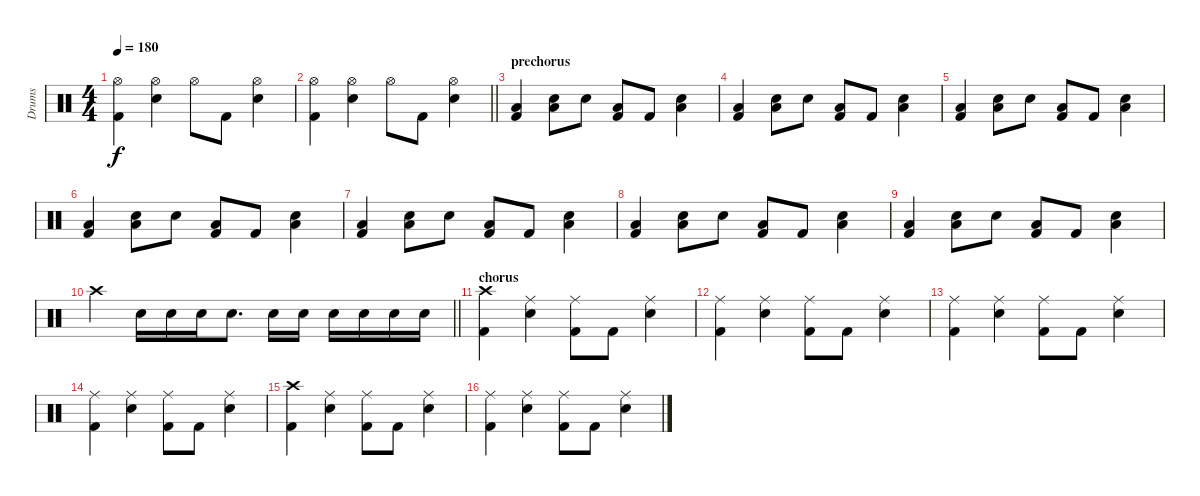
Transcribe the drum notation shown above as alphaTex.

\track ("Drums" "Drums") {instrument percussion}
\staff {score}
\articulation defaults
\ts (4 4)
\tempo 180
\clef neutral
\ks c
("Hi-Hat (open)" "Kick (hit) 2").4{dy f} ("Hi-Hat (open)" "Electric Snare (hit)").4 "Hi-Hat (open)".8 "Kick (hit) 2".8 ("Hi-Hat (open)" "Electric Snare (hit)").4 |
\barLineRight lightlight
("Hi-Hat (open)" "Kick (hit) 2").4 ("Hi-Hat (open)" "Electric Snare (hit)").4 "Hi-Hat (open)".8 "Kick (hit) 2".8 ("Hi-Hat (open)" "Electric Snare (hit)").4 |
\section ("" "prechorus")
("Low Tom (hit)" "Kick (hit) 2").4 ("Low Tom (hit)" "Electric Snare (hit)").8 "Electric Snare (hit)".8 ("Low Tom (hit)" "Kick (hit) 2").8 "Kick (hit) 2".8 ("Low Tom (hit)" "Electric Snare (hit)").4 |
("Low Tom (hit)" "Kick (hit) 2").4 ("Low Tom (hit)" "Electric Snare (hit)").8 "Electric Snare (hit)".8 ("Low Tom (hit)" "Kick (hit) 2").8 "Kick (hit) 2".8 ("Low Tom (hit)" "Electric Snare (hit)").4 |
("Low Tom (hit)" "Kick (hit) 2").4 ("Low Tom (hit)" "Electric Snare (hit)").8 "Electric Snare (hit)".8 ("Low Tom (hit)" "Kick (hit) 2").8 "Kick (hit) 2".8 ("Low Tom (hit)" "Electric Snare (hit)").4 |
("Low Tom (hit)" "Kick (hit) 2").4 ("Low Tom (hit)" "Electric Snare (hit)").8 "Electric Snare (hit)".8 ("Low Tom (hit)" "Kick (hit) 2").8 "Kick (hit) 2".8 ("Low Tom (hit)" "Electric Snare (hit)").4 |
("Low Tom (hit)" "Kick (hit) 2").4 ("Low Tom (hit)" "Electric Snare (hit)").8 "Electric Snare (hit)".8 ("Low Tom (hit)" "Kick (hit) 2").8 "Kick (hit) 2".8 ("Low Tom (hit)" "Electric Snare (hit)").4 |
("Low Tom (hit)" "Kick (hit) 2").4 ("Low Tom (hit)" "Electric Snare (hit)").8 "Electric Snare (hit)".8 ("Low Tom (hit)" "Kick (hit) 2").8 "Kick (hit) 2".8 ("Low Tom (hit)" "Electric Snare (hit)").4 |
("Low Tom (hit)" "Kick (hit) 2").4 ("Low Tom (hit)" "Electric Snare (hit)").8 "Electric Snare (hit)".8 ("Low Tom (hit)" "Kick (hit) 2").8 "Kick (hit) 2".8 ("Low Tom (hit)" "Electric Snare (hit)").4 |
\barLineRight lightlight "Crash high (hit)".4 "Electric Snare (hit)".16 "Electric Snare (hit)".16 "Electric Snare (hit)".16 "Electric Snare (hit)".8{d} "Electric Snare (hit)".16 "Electric Snare (hit)".16 "Electric Snare (hit)".16 "Electric Snare (hit)".16 "Electric Snare (hit)".16 "Electric Snare (hit)".16
|
\section ("" "chorus")
("Crash high (hit)" "Kick (hit) 2").4 ("Ride (middle)" "Electric Snare (hit)").4 ("Ride (middle)" "Kick (hit) 2").8 "Kick (hit) 2".8 ("Ride (middle)" "Electric Snare (hit)").4 |
("Ride (middle)" "Kick (hit) 2").4 ("Ride (middle)" "Electric Snare (hit)").4 ("Ride (middle)" "Kick (hit) 2").8 "Kick (hit) 2".8 ("Ride (middle)" "Electric Snare (hit)").4 |
("Ride (middle)" "Kick (hit) 2").4 ("Ride (middle)" "Electric Snare (hit)").4 ("Ride (middle)" "Kick (hit) 2").8 "Kick (hit) 2".8 ("Ride (middle)" "Electric Snare (hit)").4 |
("Ride (middle)" "Kick (hit) 2").4 ("Ride (middle)" "Electric Snare (hit)").4 ("Ride (middle)" "Kick (hit) 2").8 "Kick (hit) 2".8 ("Ride (middle)" "Electric Snare (hit)").4 |
("Crash high (hit)" "Kick (hit) 2").4 ("Ride (middle)" "Electric Snare (hit)").4 ("Ride (middle)" "Kick (hit) 2").8 "Kick (hit) 2".8 ("Ride (middle)" "Electric Snare (hit)").4 |
("Ride (middle)" "Kick (hit) 2").4 ("Ride (middle)" "Electric Snare (hit)").4 ("Ride (middle)" "Kick (hit) 2").8 "Kick (hit) 2".8 ("Ride (middle)" "Electric Snare (hit)").4
